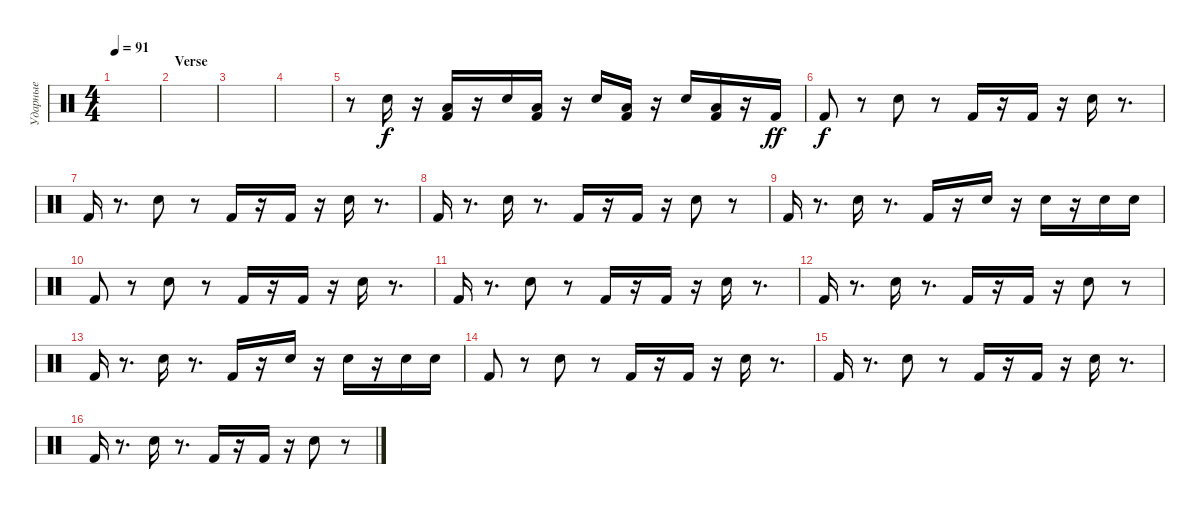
\track ("Ударные" "Ударные") {instrument percussion}
\staff {score}
\articulation defaults
\ts (4 4)
\tempo 91
\clef neutral
\ks c
|
\section ("" "Verse")
|
|
|
r.8 "Electric Snare (hit)".16 r.16 ("Low Floor Tom (hit)" "Kick (hit) 2").16 r.16 "Electric Snare (hit)".16 ("Low Floor Tom (hit)" "Kick (hit) 2").16 r.16 "Electric Snare (hit)".16 ("Low Floor Tom (hit)" "Kick (hit) 2").16 r.16 "Electric Snare (hit)".16 ("Low Floor Tom (hit)" "Kick (hit) 2").16 r.16 "Kick (hit) 2".16{dy ff} |
"Kick (hit) 2".8{dy f} r.8 "Electric Snare (hit)".8 r.8 "Kick (hit) 2".16 r.16 "Kick (hit) 2".16 r.16 "Electric Snare (hit)".16 r.8{d} |
"Kick (hit) 2".16 r.8{d} "Electric Snare (hit)".8 r.8 "Kick (hit) 2".16 r.16 "Kick (hit) 2".16 r.16 "Electric Snare (hit)".16 r.8{d} |
"Kick (hit) 2".16 r.8{d} "Electric Snare (hit)".16 r.8{d} "Kick (hit) 2".16 r.16 "Kick (hit) 2".16 r.16 "Electric Snare (hit)".8 r.8 |
"Kick (hit) 2".16 r.8{d} "Electric Snare (hit)".16 r.8{d} "Kick (hit) 2".16 r.16 "Electric Snare (hit)".16 r.16 "Electric Snare (hit)".16 r.16 "Electric Snare (hit)".16 "Electric Snare (hit)".16 |
"Kick (hit) 2".8 r.8 "Electric Snare (hit)".8 r.8 "Kick (hit) 2".16 r.16 "Kick (hit) 2".16 r.16 "Electric Snare (hit)".16 r.8{d} |
"Kick (hit) 2".16 r.8{d} "Electric Snare (hit)".8 r.8 "Kick (hit) 2".16 r.16 "Kick (hit) 2".16 r.16 "Electric Snare (hit)".16 r.8{d} |
"Kick (hit) 2".16 r.8{d} "Electric Snare (hit)".16 r.8{d} "Kick (hit) 2".16 r.16 "Kick (hit) 2".16 r.16 "Electric Snare (hit)".8 r.8 |
"Kick (hit) 2".16 r.8{d} "Electric Snare (hit)".16 r.8{d} "Kick (hit) 2".16 r.16 "Electric Snare (hit)".16 r.16 "Electric Snare (hit)".16 r.16 "Electric Snare (hit)".16 "Electric Snare (hit)".16 |
"Kick (hit) 2".8 r.8 "Electric Snare (hit)".8 r.8 "Kick (hit) 2".16 r.16 "Kick (hit) 2".16 r.16 "Electric Snare (hit)".16 r.8{d} |
"Kick (hit) 2".16 r.8{d} "Electric Snare (hit)".8 r.8 "Kick (hit) 2".16 r.16 "Kick (hit) 2".16 r.16 "Electric Snare (hit)".16 r.8{d} |
"Kick (hit) 2".16 r.8{d} "Electric Snare (hit)".16 r.8{d} "Kick (hit) 2".16 r.16 "Kick (hit) 2".16 r.16 "Electric Snare (hit)".8 r.8
